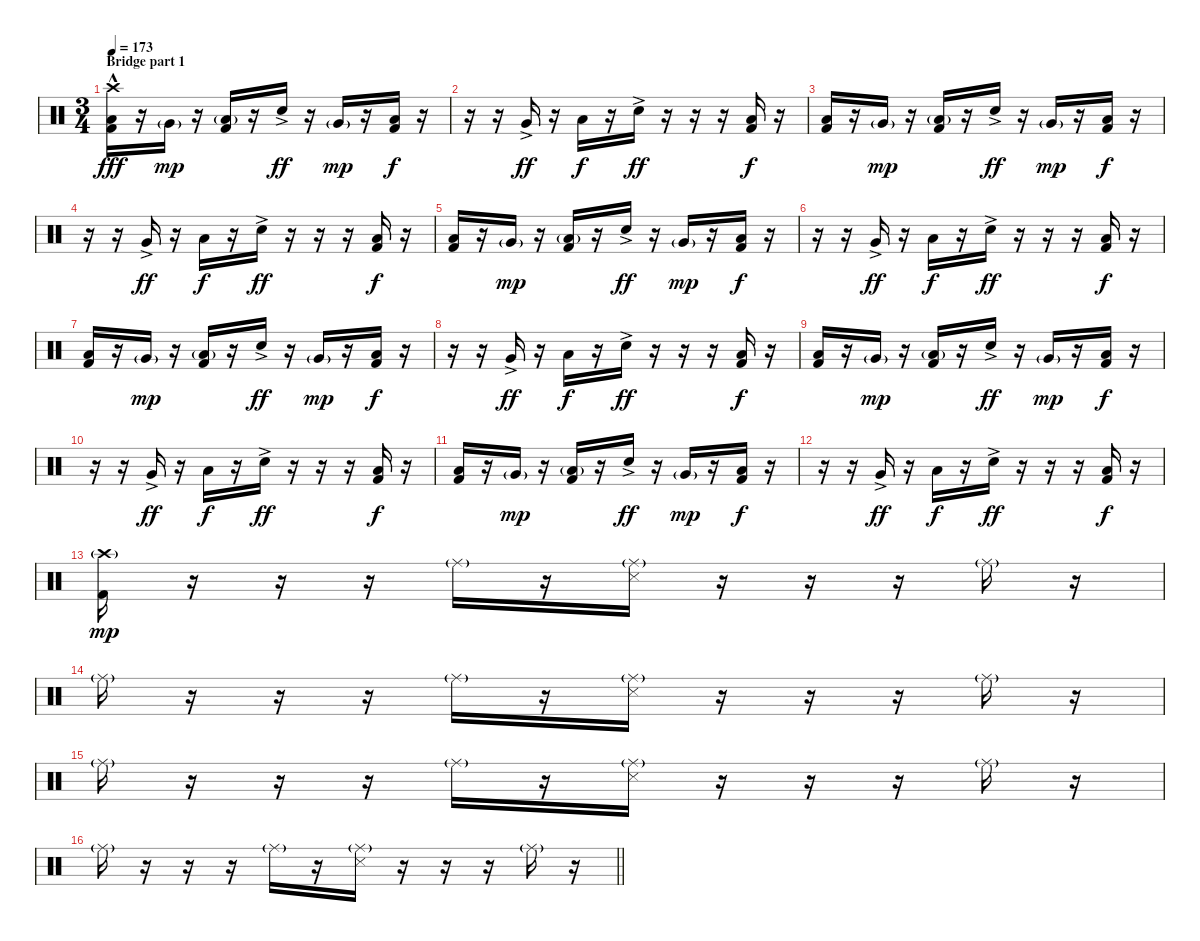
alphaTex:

\track (" " " ") {instrument percussion}
\staff {score}
\articulation defaults
\ts (3 4)
\section ("" "Bridge part 1")
\tempo 173
\clef neutral
\ks c
("Crash high (hit)"{hac} "Low Floor Tom (hit)"{hac} "Kick (hit) 2"{hac}).16{dy fff} r.16 "Very Low Tom (hit)"{g}.16{dy mp} r.16 ("Low Floor Tom (hit)"{g} "Kick (hit) 2").16 r.16 "Electric Snare (hit)"{ac}.16{dy ff} r.16 "Very Low Tom (hit)"{g}.16{dy mp} r.16 ("Low Floor Tom (hit)" "Kick (hit) 2").16{dy f} r.16 |
r.16 r.16 "Very Low Tom (hit)"{ac}.16{dy ff} r.16 "Low Floor Tom (hit)".16{dy f} r.16 "Electric Snare (hit)"{ac}.16{dy ff} r.16 r.16 r.16 ("Low Floor Tom (hit)" "Kick (hit) 2").16{dy f} r.16 |
("Low Floor Tom (hit)" "Kick (hit) 2").16 r.16 "Very Low Tom (hit)"{g}.16{dy mp} r.16 ("Low Floor Tom (hit)"{g} "Kick (hit) 2").16 r.16 "Electric Snare (hit)"{ac}.16{dy ff} r.16 "Very Low Tom (hit)"{g}.16{dy mp} r.16 ("Low Floor Tom (hit)" "Kick (hit) 2").16{dy f} r.16 |
r.16 r.16 "Very Low Tom (hit)"{ac}.16{dy ff} r.16 "Low Floor Tom (hit)".16{dy f} r.16 "Electric Snare (hit)"{ac}.16{dy ff} r.16 r.16 r.16 ("Low Floor Tom (hit)" "Kick (hit) 2").16{dy f} r.16 |
("Low Floor Tom (hit)" "Kick (hit) 2").16 r.16 "Very Low Tom (hit)"{g}.16{dy mp} r.16 ("Low Floor Tom (hit)"{g} "Kick (hit) 2").16 r.16 "Electric Snare (hit)"{ac}.16{dy ff} r.16 "Very Low Tom (hit)"{g}.16{dy mp} r.16 ("Low Floor Tom (hit)" "Kick (hit) 2").16{dy f} r.16 |
r.16 r.16 "Very Low Tom (hit)"{ac}.16{dy ff} r.16 "Low Floor Tom (hit)".16{dy f} r.16 "Electric Snare (hit)"{ac}.16{dy ff} r.16 r.16 r.16 ("Low Floor Tom (hit)" "Kick (hit) 2").16{dy f} r.16 |
("Low Floor Tom (hit)" "Kick (hit) 2").16 r.16 "Very Low Tom (hit)"{g}.16{dy mp} r.16 ("Low Floor Tom (hit)"{g} "Kick (hit) 2").16 r.16 "Electric Snare (hit)"{ac}.16{dy ff} r.16 "Very Low Tom (hit)"{g}.16{dy mp} r.16 ("Low Floor Tom (hit)" "Kick (hit) 2").16{dy f} r.16 |
r.16 r.16 "Very Low Tom (hit)"{ac}.16{dy ff} r.16 "Low Floor Tom (hit)".16{dy f} r.16 "Electric Snare (hit)"{ac}.16{dy ff} r.16 r.16 r.16 ("Low Floor Tom (hit)" "Kick (hit) 2").16{dy f} r.16 |
("Low Floor Tom (hit)" "Kick (hit) 2").16 r.16 "Very Low Tom (hit)"{g}.16{dy mp} r.16 ("Low Floor Tom (hit)"{g} "Kick (hit) 2").16 r.16 "Electric Snare (hit)"{ac}.16{dy ff} r.16 "Very Low Tom (hit)"{g}.16{dy mp} r.16 ("Low Floor Tom (hit)" "Kick (hit) 2").16{dy f} r.16 |
r.16 r.16 "Very Low Tom (hit)"{ac}.16{dy ff} r.16 "Low Floor Tom (hit)".16{dy f} r.16 "Electric Snare (hit)"{ac}.16{dy ff} r.16 r.16 r.16 ("Low Floor Tom (hit)" "Kick (hit) 2").16{dy f} r.16 |
("Low Floor Tom (hit)" "Kick (hit) 2").16 r.16 "Very Low Tom (hit)"{g}.16{dy mp} r.16 ("Low Floor Tom (hit)"{g} "Kick (hit) 2").16 r.16 "Electric Snare (hit)"{ac}.16{dy ff} r.16 "Very Low Tom (hit)"{g}.16{dy mp} r.16 ("Low Floor Tom (hit)" "Kick (hit) 2").16{dy f} r.16 |
r.16 r.16 "Very Low Tom (hit)"{ac}.16{dy ff} r.16 "Low Floor Tom (hit)".16{dy f} r.16 "Electric Snare (hit)"{ac}.16{dy ff} r.16 r.16 r.16 ("Low Floor Tom (hit)" "Kick (hit) 2").16{dy f} r.16 |
("Crash high (hit)"{g} "Kick (hit) 2").16{dy mp} r.16 r.16 r.16 "Ride (middle)"{g}.16 r.16 ("Ride (middle)"{g} "Snare (side stick) 3").16 r.16 r.16 r.16 "Ride (middle)"{g}.16 r.16 |
"Ride (middle)"{g}.16 r.16 r.16 r.16 "Ride (middle)"{g}.16 r.16 ("Ride (middle)"{g} "Snare (side stick) 3").16 r.16 r.16 r.16 "Ride (middle)"{g}.16 r.16 |
"Ride (middle)"{g}.16 r.16 r.16 r.16 "Ride (middle)"{g}.16 r.16 ("Ride (middle)"{g} "Snare (side stick) 3").16 r.16 r.16 r.16 "Ride (middle)"{g}.16 r.16 |
\barLineRight lightlight "Ride (middle)"{g}.16
r.16 r.16 r.16 "Ride (middle)"{g}.16 r.16 ("Ride (middle)"{g} "Snare (side stick) 3").16 r.16 r.16 r.16 "Ride (middle)"{g}.16 r.16
